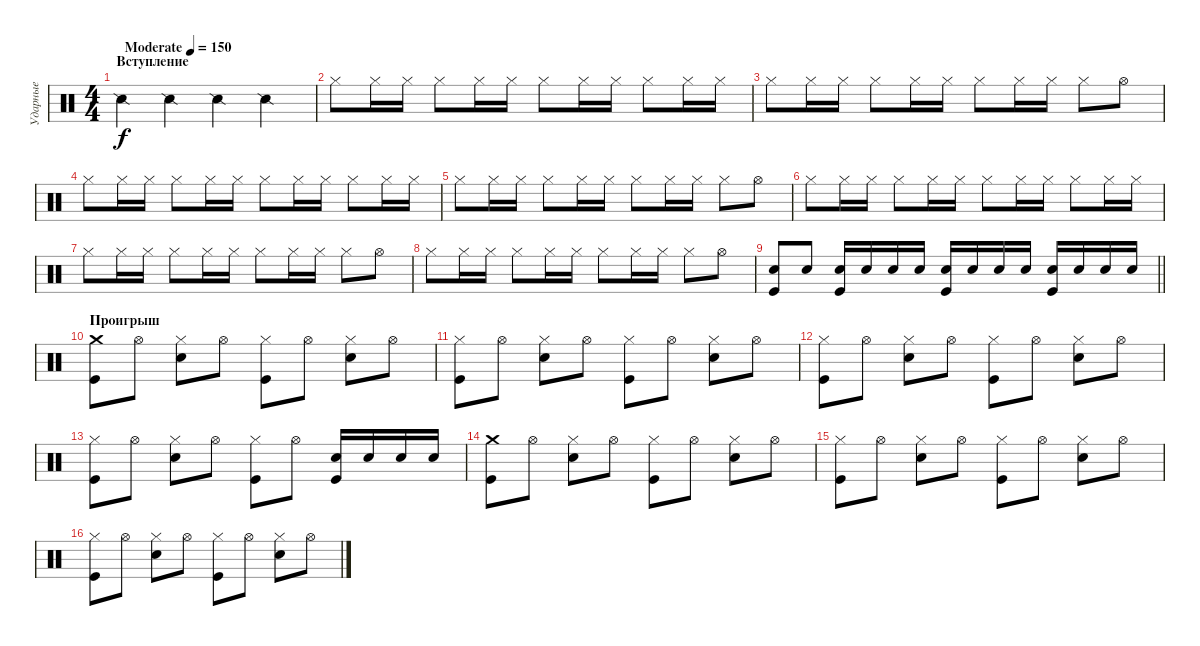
\track ("Ударные" "Ударные") {instrument percussion}
\staff {score}
\articulation defaults
\ts (4 4)
\section ("" "Вступление")
\tempo (150 "Moderate")
\clef neutral
\ks c "Snare (side stick) 2".4{dy f} "Snare (side stick) 2".4 "Snare (side stick) 2".4 "Snare (side stick) 2".4
|
"Hi-Hat (closed)".8 "Hi-Hat (closed)".16 "Hi-Hat (closed)".16 "Hi-Hat (closed)".8 "Hi-Hat (closed)".16 "Hi-Hat (closed)".16 "Hi-Hat (closed)".8 "Hi-Hat (closed)".16 "Hi-Hat (closed)".16 "Hi-Hat (closed)".8 "Hi-Hat (closed)".16 "Hi-Hat (closed)".16 |
"Hi-Hat (closed)".8 "Hi-Hat (closed)".16 "Hi-Hat (closed)".16 "Hi-Hat (closed)".8 "Hi-Hat (closed)".16 "Hi-Hat (closed)".16 "Hi-Hat (closed)".8 "Hi-Hat (closed)".16 "Hi-Hat (closed)".16 "Hi-Hat (closed)".8 "Hi-Hat (open)".8 |
"Hi-Hat (closed)".8 "Hi-Hat (closed)".16 "Hi-Hat (closed)".16 "Hi-Hat (closed)".8 "Hi-Hat (closed)".16 "Hi-Hat (closed)".16 "Hi-Hat (closed)".8 "Hi-Hat (closed)".16 "Hi-Hat (closed)".16 "Hi-Hat (closed)".8 "Hi-Hat (closed)".16 "Hi-Hat (closed)".16 |
"Hi-Hat (closed)".8 "Hi-Hat (closed)".16 "Hi-Hat (closed)".16 "Hi-Hat (closed)".8 "Hi-Hat (closed)".16 "Hi-Hat (closed)".16 "Hi-Hat (closed)".8 "Hi-Hat (closed)".16 "Hi-Hat (closed)".16 "Hi-Hat (closed)".8 "Hi-Hat (open)".8 |
"Hi-Hat (closed)".8 "Hi-Hat (closed)".16 "Hi-Hat (closed)".16 "Hi-Hat (closed)".8 "Hi-Hat (closed)".16 "Hi-Hat (closed)".16 "Hi-Hat (closed)".8 "Hi-Hat (closed)".16 "Hi-Hat (closed)".16 "Hi-Hat (closed)".8 "Hi-Hat (closed)".16 "Hi-Hat (closed)".16 |
"Hi-Hat (closed)".8 "Hi-Hat (closed)".16 "Hi-Hat (closed)".16 "Hi-Hat (closed)".8 "Hi-Hat (closed)".16 "Hi-Hat (closed)".16 "Hi-Hat (closed)".8 "Hi-Hat (closed)".16 "Hi-Hat (closed)".16 "Hi-Hat (closed)".8 "Hi-Hat (open)".8 |
"Hi-Hat (closed)".8 "Hi-Hat (closed)".16 "Hi-Hat (closed)".16 "Hi-Hat (closed)".8 "Hi-Hat (closed)".16 "Hi-Hat (closed)".16 "Hi-Hat (closed)".8 "Hi-Hat (closed)".16 "Hi-Hat (closed)".16 "Hi-Hat (closed)".8 "Hi-Hat (open)".8 |
\barLineRight lightlight
("Electric Snare (hit)" "Kick (hit)").8 "Electric Snare (hit)".8 ("Electric Snare (hit)" "Kick (hit)").16 "Electric Snare (hit)".16 "Electric Snare (hit)".16 "Electric Snare (hit)".16 ("Electric Snare (hit)" "Kick (hit)").16 "Electric Snare (hit)".16 "Electric Snare (hit)".16 "Electric Snare (hit)".16 ("Electric Snare (hit)" "Kick (hit)").16 "Electric Snare (hit)".16 "Electric Snare (hit)".16 "Electric Snare (hit)".16 |
\section ("" "Проигрыш")
("Crash medium (hit)" "Kick (hit)").8 "Hi-Hat (open)".8 ("Hi-Hat (closed)" "Electric Snare (hit)").8 "Hi-Hat (open)".8 ("Hi-Hat (closed)" "Kick (hit)").8 "Hi-Hat (open)".8 ("Hi-Hat (closed)" "Electric Snare (hit)").8 "Hi-Hat (open)".8 |
("Hi-Hat (closed)" "Kick (hit)").8 "Hi-Hat (open)".8 ("Hi-Hat (closed)" "Electric Snare (hit)").8 "Hi-Hat (open)".8 ("Hi-Hat (closed)" "Kick (hit)").8 "Hi-Hat (open)".8 ("Hi-Hat (closed)" "Electric Snare (hit)").8 "Hi-Hat (open)".8 |
("Hi-Hat (closed)" "Kick (hit)").8 "Hi-Hat (open)".8 ("Hi-Hat (closed)" "Electric Snare (hit)").8 "Hi-Hat (open)".8 ("Hi-Hat (closed)" "Kick (hit)").8 "Hi-Hat (open)".8 ("Hi-Hat (closed)" "Electric Snare (hit)").8 "Hi-Hat (open)".8 |
("Hi-Hat (closed)" "Kick (hit)").8 "Hi-Hat (open)".8 ("Hi-Hat (closed)" "Electric Snare (hit)").8 "Hi-Hat (open)".8 ("Hi-Hat (closed)" "Kick (hit)").8 "Hi-Hat (open)".8 ("Electric Snare (hit)" "Kick (hit)").16 "Electric Snare (hit)".16 "Electric Snare (hit)".16 "Electric Snare (hit)".16 |
("Crash medium (hit)" "Kick (hit)").8 "Hi-Hat (open)".8 ("Hi-Hat (closed)" "Electric Snare (hit)").8 "Hi-Hat (open)".8 ("Hi-Hat (closed)" "Kick (hit)").8 "Hi-Hat (open)".8 ("Hi-Hat (closed)" "Electric Snare (hit)").8 "Hi-Hat (open)".8 |
("Hi-Hat (closed)" "Kick (hit)").8 "Hi-Hat (open)".8 ("Hi-Hat (closed)" "Electric Snare (hit)").8 "Hi-Hat (open)".8 ("Hi-Hat (closed)" "Kick (hit)").8 "Hi-Hat (open)".8 ("Hi-Hat (closed)" "Electric Snare (hit)").8 "Hi-Hat (open)".8 |
("Hi-Hat (closed)" "Kick (hit)").8 "Hi-Hat (open)".8 ("Hi-Hat (closed)" "Electric Snare (hit)").8 "Hi-Hat (open)".8 ("Hi-Hat (closed)" "Kick (hit)").8 "Hi-Hat (open)".8 ("Hi-Hat (closed)" "Electric Snare (hit)").8 "Hi-Hat (open)".8
